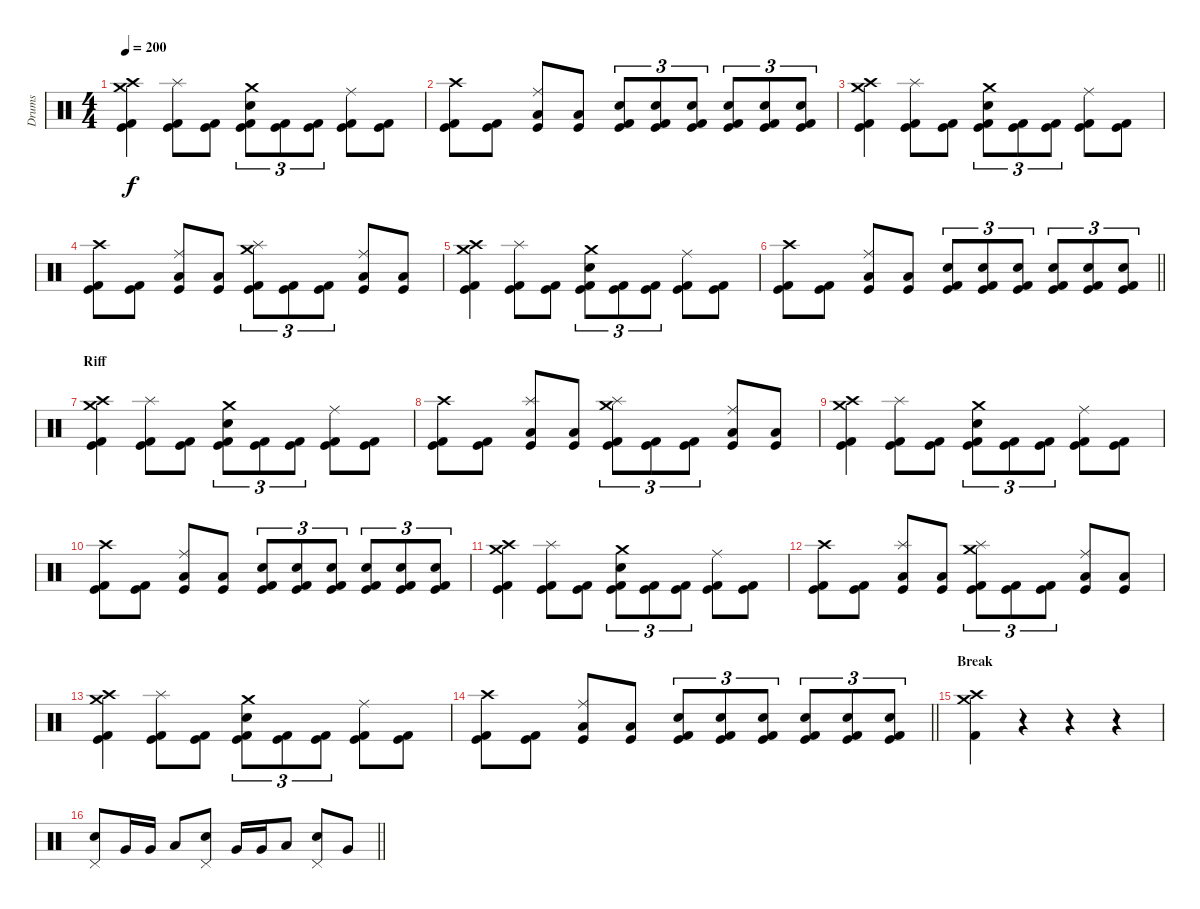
\track ("Drums" "Drums") {instrument percussion}
\staff {score}
\articulation defaults
\ts (4 4)
\tempo 200
\clef neutral
\ks c
("Crash high (hit)" "Crash medium (hit)" "Kick (hit)" "Kick (hit) 2").4{dy f} ("Splash (hit)" "Kick (hit)" "Kick (hit) 2").8 ("Kick (hit)" "Kick (hit) 2").8 ("Crash medium (hit)" "Snare (hit) 2" "Kick (hit)" "Kick (hit) 2").8{tu (3 2)} ("Kick (hit)" "Kick (hit) 2").8{tu (3 2)} ("Kick (hit)" "Kick (hit) 2").8{tu (3 2)} ("Ride (middle)" "Kick (hit)" "Kick (hit) 2").8 ("Kick (hit)" "Kick (hit) 2").8 |
("Crash high (hit)" "Kick (hit)" "Kick (hit) 2").8 ("Kick (hit)" "Kick (hit) 2").8 ("Ride (middle)" "Kick (hit)" "Low Tom (hit)").8 ("Kick (hit)" "Low Tom (hit)").8 ("Snare (hit) 2" "Kick (hit)" "Kick (hit) 2").8{tu (3 2)} ("Snare (hit) 2" "Kick (hit)" "Kick (hit) 2").8{tu (3 2)} ("Snare (hit) 2" "Kick (hit)" "Kick (hit) 2").8{tu (3 2)} ("Snare (hit) 2" "Kick (hit)" "Kick (hit) 2").8{tu (3 2)} ("Snare (hit) 2" "Kick (hit)" "Kick (hit) 2").8{tu (3 2)} ("Snare (hit) 2" "Kick (hit)" "Kick (hit) 2").8{tu (3 2)} |
("Crash high (hit)" "Crash medium (hit)" "Kick (hit)" "Kick (hit) 2").4 ("Splash (hit)" "Kick (hit)" "Kick (hit) 2").8 ("Kick (hit)" "Kick (hit) 2").8 ("Crash medium (hit)" "Snare (hit) 2" "Kick (hit)" "Kick (hit) 2").8{tu (3 2)} ("Kick (hit)" "Kick (hit) 2").8{tu (3 2)} ("Kick (hit)" "Kick (hit) 2").8{tu (3 2)} ("Ride (middle)" "Kick (hit)" "Kick (hit) 2").8 ("Kick (hit)" "Kick (hit) 2").8 |
("Crash high (hit)" "Kick (hit)" "Kick (hit) 2").8 ("Kick (hit)" "Kick (hit) 2").8 ("Ride (middle)" "Kick (hit)" "Low Tom (hit)").8 ("Kick (hit)" "Low Tom (hit)").8 ("Crash medium (hit)" "Splash (hit)" "Kick (hit)" "Kick (hit) 2").8{tu (3 2)} ("Kick (hit)" "Kick (hit) 2").8{tu (3 2)} ("Kick (hit)" "Kick (hit) 2").8{tu (3 2)} ("Ride (middle)" "Kick (hit)" "Low Tom (hit)").8 ("Kick (hit)" "Low Tom (hit)").8 |
("Crash high (hit)" "Crash medium (hit)" "Kick (hit)" "Kick (hit) 2").4 ("Splash (hit)" "Kick (hit)" "Kick (hit) 2").8 ("Kick (hit)" "Kick (hit) 2").8 ("Crash medium (hit)" "Snare (hit) 2" "Kick (hit)" "Kick (hit) 2").8{tu (3 2)} ("Kick (hit)" "Kick (hit) 2").8{tu (3 2)} ("Kick (hit)" "Kick (hit) 2").8{tu (3 2)} ("Ride (middle)" "Kick (hit)" "Kick (hit) 2").8 ("Kick (hit)" "Kick (hit) 2").8 |
\barLineRight lightlight
("Crash high (hit)" "Kick (hit)" "Kick (hit) 2").8 ("Kick (hit)" "Kick (hit) 2").8 ("Ride (middle)" "Kick (hit)" "Low Tom (hit)").8 ("Kick (hit)" "Low Tom (hit)").8 ("Snare (hit) 2" "Kick (hit)" "Kick (hit) 2").8{tu (3 2)} ("Snare (hit) 2" "Kick (hit)" "Kick (hit) 2").8{tu (3 2)} ("Snare (hit) 2" "Kick (hit)" "Kick (hit) 2").8{tu (3 2)} ("Snare (hit) 2" "Kick (hit)" "Kick (hit) 2").8{tu (3 2)} ("Snare (hit) 2" "Kick (hit)" "Kick (hit) 2").8{tu (3 2)} ("Snare (hit) 2" "Kick (hit)" "Kick (hit) 2").8{tu (3 2)} |
\section ("" "Riff")
("Crash high (hit)" "Crash medium (hit)" "Kick (hit)" "Kick (hit) 2").4 ("Splash (hit)" "Kick (hit)" "Kick (hit) 2").8 ("Kick (hit)" "Kick (hit) 2").8 ("Crash medium (hit)" "Snare (hit) 2" "Kick (hit)" "Kick (hit) 2").8{tu (3 2)} ("Kick (hit)" "Kick (hit) 2").8{tu (3 2)} ("Kick (hit)" "Kick (hit) 2").8{tu (3 2)} ("Ride (middle)" "Kick (hit)" "Kick (hit) 2").8 ("Kick (hit)" "Kick (hit) 2").8 |
("Crash high (hit)" "Kick (hit)" "Kick (hit) 2").8 ("Kick (hit)" "Kick (hit) 2").8 ("Splash (hit)" "Kick (hit)" "Low Tom (hit)").8 ("Kick (hit)" "Low Tom (hit)").8 ("Crash medium (hit)" "Splash (hit)" "Kick (hit)" "Kick (hit) 2").8{tu (3 2)} ("Kick (hit)" "Kick (hit) 2").8{tu (3 2)} ("Kick (hit)" "Kick (hit) 2").8{tu (3 2)} ("Ride (middle)" "Kick (hit)" "Low Tom (hit)").8 ("Kick (hit)" "Low Tom (hit)").8 |
("Crash high (hit)" "Crash medium (hit)" "Kick (hit)" "Kick (hit) 2").4 ("Splash (hit)" "Kick (hit)" "Kick (hit) 2").8 ("Kick (hit)" "Kick (hit) 2").8 ("Crash medium (hit)" "Snare (hit) 2" "Kick (hit)" "Kick (hit) 2").8{tu (3 2)} ("Kick (hit)" "Kick (hit) 2").8{tu (3 2)} ("Kick (hit)" "Kick (hit) 2").8{tu (3 2)} ("Ride (middle)" "Kick (hit)" "Kick (hit) 2").8 ("Kick (hit)" "Kick (hit) 2").8 |
("Crash high (hit)" "Kick (hit)" "Kick (hit) 2").8 ("Kick (hit)" "Kick (hit) 2").8 ("Ride (middle)" "Kick (hit)" "Low Tom (hit)").8 ("Kick (hit)" "Low Tom (hit)").8 ("Snare (hit) 2" "Kick (hit)" "Kick (hit) 2").8{tu (3 2)} ("Snare (hit) 2" "Kick (hit)" "Kick (hit) 2").8{tu (3 2)} ("Snare (hit) 2" "Kick (hit)" "Kick (hit) 2").8{tu (3 2)} ("Snare (hit) 2" "Kick (hit)" "Kick (hit) 2").8{tu (3 2)} ("Snare (hit) 2" "Kick (hit)" "Kick (hit) 2").8{tu (3 2)} ("Snare (hit) 2" "Kick (hit)" "Kick (hit) 2").8{tu (3 2)} |
("Crash high (hit)" "Crash medium (hit)" "Kick (hit)" "Kick (hit) 2").4 ("Splash (hit)" "Kick (hit)" "Kick (hit) 2").8 ("Kick (hit)" "Kick (hit) 2").8 ("Crash medium (hit)" "Snare (hit) 2" "Kick (hit)" "Kick (hit) 2").8{tu (3 2)} ("Kick (hit)" "Kick (hit) 2").8{tu (3 2)} ("Kick (hit)" "Kick (hit) 2").8{tu (3 2)} ("Ride (middle)" "Kick (hit)" "Kick (hit) 2").8 ("Kick (hit)" "Kick (hit) 2").8 |
("Crash high (hit)" "Kick (hit)" "Kick (hit) 2").8 ("Kick (hit)" "Kick (hit) 2").8 ("Splash (hit)" "Kick (hit)" "Low Tom (hit)").8 ("Kick (hit)" "Low Tom (hit)").8 ("Crash medium (hit)" "Splash (hit)" "Kick (hit)" "Kick (hit) 2").8{tu (3 2)} ("Kick (hit)" "Kick (hit) 2").8{tu (3 2)} ("Kick (hit)" "Kick (hit) 2").8{tu (3 2)} ("Ride (middle)" "Kick (hit)" "Low Tom (hit)").8 ("Kick (hit)" "Low Tom (hit)").8 |
("Crash high (hit)" "Crash medium (hit)" "Kick (hit)" "Kick (hit) 2").4 ("Splash (hit)" "Kick (hit)" "Kick (hit) 2").8 ("Kick (hit)" "Kick (hit) 2").8 ("Crash medium (hit)" "Snare (hit) 2" "Kick (hit)" "Kick (hit) 2").8{tu (3 2)} ("Kick (hit)" "Kick (hit) 2").8{tu (3 2)} ("Kick (hit)" "Kick (hit) 2").8{tu (3 2)} ("Ride (middle)" "Kick (hit)" "Kick (hit) 2").8 ("Kick (hit)" "Kick (hit) 2").8 |
\barLineRight lightlight
("Crash high (hit)" "Kick (hit)" "Kick (hit) 2").8 ("Kick (hit)" "Kick (hit) 2").8 ("Ride (middle)" "Kick (hit)" "Low Tom (hit)").8 ("Kick (hit)" "Low Tom (hit)").8 ("Snare (hit) 2" "Kick (hit)" "Kick (hit) 2").8{tu (3 2)} ("Snare (hit) 2" "Kick (hit)" "Kick (hit) 2").8{tu (3 2)} ("Snare (hit) 2" "Kick (hit)" "Kick (hit) 2").8{tu (3 2)} ("Snare (hit) 2" "Kick (hit)" "Kick (hit) 2").8{tu (3 2)} ("Snare (hit) 2" "Kick (hit)" "Kick (hit) 2").8{tu (3 2)} ("Snare (hit) 2" "Kick (hit)" "Kick (hit) 2").8{tu (3 2)} |
\section ("" "Break")
("Crash high (hit)" "Crash medium (hit)" "Kick (hit) 2").4 r.4 r.4 r.4 |
\barLineRight lightlight
("Pedal Hi-Hat (hit)" "Snare (hit) 2").8 "Very Low Tom (hit)".16 "Very Low Tom (hit)".16 "Low Floor Tom (hit)".8 ("Pedal Hi-Hat (hit)" "Snare (hit) 2").8 "Very Low Tom (hit)".16 "Very Low Tom (hit)".16 "Low Floor Tom (hit)".8 ("Pedal Hi-Hat (hit)" "Snare (hit) 2").8 "Very Low Tom (hit)".8
